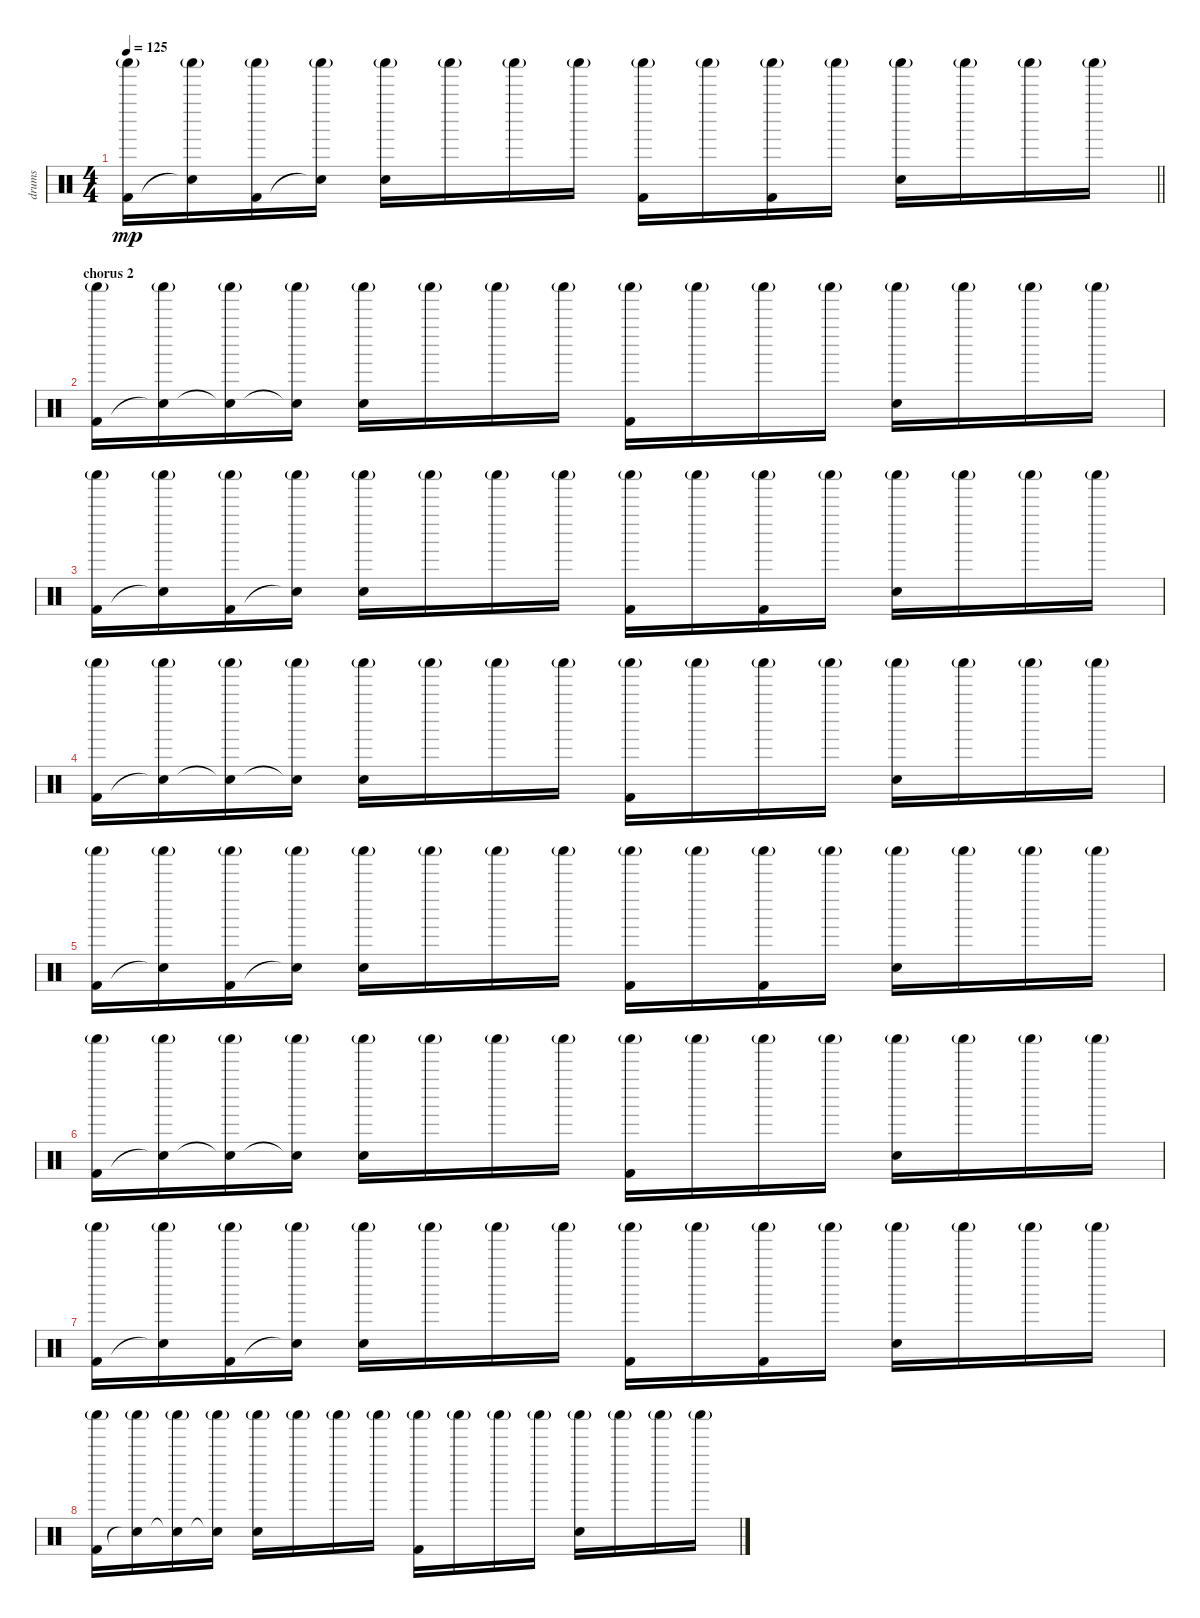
\track ("drums" "drums") {instrument percussion}
\staff {score}
\articulation defaults
\ts (4 4)
\tempo 125
\clef neutral
\barLineRight lightlight
\ks c
("Shaker (hit)"{g} "Kick (hit) 2").16{dy mp} ("Shaker (hit)"{g} "Snare (hit)"{t}).16 ("Shaker (hit)"{g} "Kick (hit) 2").16 ("Shaker (hit)"{g} "Snare (hit)"{t}).16 ("Shaker (hit)"{g} "Snare (hit) 2").16 "Shaker (hit)"{g}.16 "Shaker (hit)"{g}.16 "Shaker (hit)"{g}.16 ("Shaker (hit)"{g} "Kick (hit) 2").16 "Shaker (hit)"{g}.16 ("Shaker (hit)"{g} "Kick (hit) 2").16 "Shaker (hit)"{g}.16 ("Shaker (hit)"{g} "Snare (hit) 2").16 "Shaker (hit)"{g}.16 "Shaker (hit)"{g}.16 "Shaker (hit)"{g}.16 |
\section ("" "chorus 2")
("Shaker (hit)"{g} "Kick (hit) 2").16 ("Shaker (hit)"{g} "Snare (hit)"{t}).16 ("Shaker (hit)"{g} "Snare (hit)"{t}).16 ("Shaker (hit)"{g} "Snare (hit)"{t}).16 ("Shaker (hit)"{g} "Snare (hit) 2").16 "Shaker (hit)"{g}.16 "Shaker (hit)"{g}.16 "Shaker (hit)"{g}.16 ("Shaker (hit)"{g} "Kick (hit) 2").16 "Shaker (hit)"{g}.16 "Shaker (hit)"{g}.16 "Shaker (hit)"{g}.16 ("Shaker (hit)"{g} "Snare (hit) 2").16 "Shaker (hit)"{g}.16 "Shaker (hit)"{g}.16 "Shaker (hit)"{g}.16 |
("Shaker (hit)"{g} "Kick (hit) 2").16 ("Shaker (hit)"{g} "Snare (hit)"{t}).16 ("Shaker (hit)"{g} "Kick (hit) 2").16 ("Shaker (hit)"{g} "Snare (hit)"{t}).16 ("Shaker (hit)"{g} "Snare (hit) 2").16 "Shaker (hit)"{g}.16 "Shaker (hit)"{g}.16 "Shaker (hit)"{g}.16 ("Shaker (hit)"{g} "Kick (hit) 2").16 "Shaker (hit)"{g}.16 ("Shaker (hit)"{g} "Kick (hit) 2").16 "Shaker (hit)"{g}.16 ("Shaker (hit)"{g} "Snare (hit) 2").16 "Shaker (hit)"{g}.16 "Shaker (hit)"{g}.16 "Shaker (hit)"{g}.16 |
("Shaker (hit)"{g} "Kick (hit) 2").16 ("Shaker (hit)"{g} "Snare (hit)"{t}).16 ("Shaker (hit)"{g} "Snare (hit)"{t}).16 ("Shaker (hit)"{g} "Snare (hit)"{t}).16 ("Shaker (hit)"{g} "Snare (hit) 2").16 "Shaker (hit)"{g}.16 "Shaker (hit)"{g}.16 "Shaker (hit)"{g}.16 ("Shaker (hit)"{g} "Kick (hit) 2").16 "Shaker (hit)"{g}.16 "Shaker (hit)"{g}.16 "Shaker (hit)"{g}.16 ("Shaker (hit)"{g} "Snare (hit) 2").16 "Shaker (hit)"{g}.16 "Shaker (hit)"{g}.16 "Shaker (hit)"{g}.16 |
("Shaker (hit)"{g} "Kick (hit) 2").16 ("Shaker (hit)"{g} "Snare (hit)"{t}).16 ("Shaker (hit)"{g} "Kick (hit) 2").16 ("Shaker (hit)"{g} "Snare (hit)"{t}).16 ("Shaker (hit)"{g} "Snare (hit) 2").16 "Shaker (hit)"{g}.16 "Shaker (hit)"{g}.16 "Shaker (hit)"{g}.16 ("Shaker (hit)"{g} "Kick (hit) 2").16 "Shaker (hit)"{g}.16 ("Shaker (hit)"{g} "Kick (hit) 2").16 "Shaker (hit)"{g}.16 ("Shaker (hit)"{g} "Snare (hit) 2").16 "Shaker (hit)"{g}.16 "Shaker (hit)"{g}.16 "Shaker (hit)"{g}.16 |
("Shaker (hit)"{g} "Kick (hit) 2").16 ("Shaker (hit)"{g} "Snare (hit)"{t}).16 ("Shaker (hit)"{g} "Snare (hit)"{t}).16 ("Shaker (hit)"{g} "Snare (hit)"{t}).16 ("Shaker (hit)"{g} "Snare (hit) 2").16 "Shaker (hit)"{g}.16 "Shaker (hit)"{g}.16 "Shaker (hit)"{g}.16 ("Shaker (hit)"{g} "Kick (hit) 2").16 "Shaker (hit)"{g}.16 "Shaker (hit)"{g}.16 "Shaker (hit)"{g}.16 ("Shaker (hit)"{g} "Snare (hit) 2").16 "Shaker (hit)"{g}.16 "Shaker (hit)"{g}.16 "Shaker (hit)"{g}.16 |
("Shaker (hit)"{g} "Kick (hit) 2").16 ("Shaker (hit)"{g} "Snare (hit)"{t}).16 ("Shaker (hit)"{g} "Kick (hit) 2").16 ("Shaker (hit)"{g} "Snare (hit)"{t}).16 ("Shaker (hit)"{g} "Snare (hit) 2").16 "Shaker (hit)"{g}.16 "Shaker (hit)"{g}.16 "Shaker (hit)"{g}.16 ("Shaker (hit)"{g} "Kick (hit) 2").16 "Shaker (hit)"{g}.16 ("Shaker (hit)"{g} "Kick (hit) 2").16 "Shaker (hit)"{g}.16 ("Shaker (hit)"{g} "Snare (hit) 2").16 "Shaker (hit)"{g}.16 "Shaker (hit)"{g}.16 "Shaker (hit)"{g}.16 |
("Shaker (hit)"{g} "Kick (hit) 2").16 ("Shaker (hit)"{g} "Snare (hit)"{t}).16 ("Shaker (hit)"{g} "Snare (hit)"{t}).16 ("Shaker (hit)"{g} "Snare (hit)"{t}).16 ("Shaker (hit)"{g} "Snare (hit) 2").16 "Shaker (hit)"{g}.16 "Shaker (hit)"{g}.16 "Shaker (hit)"{g}.16 ("Shaker (hit)"{g} "Kick (hit) 2").16 "Shaker (hit)"{g}.16 "Shaker (hit)"{g}.16 "Shaker (hit)"{g}.16 ("Shaker (hit)"{g} "Snare (hit) 2").16 "Shaker (hit)"{g}.16 "Shaker (hit)"{g}.16 "Shaker (hit)"{g}.16
